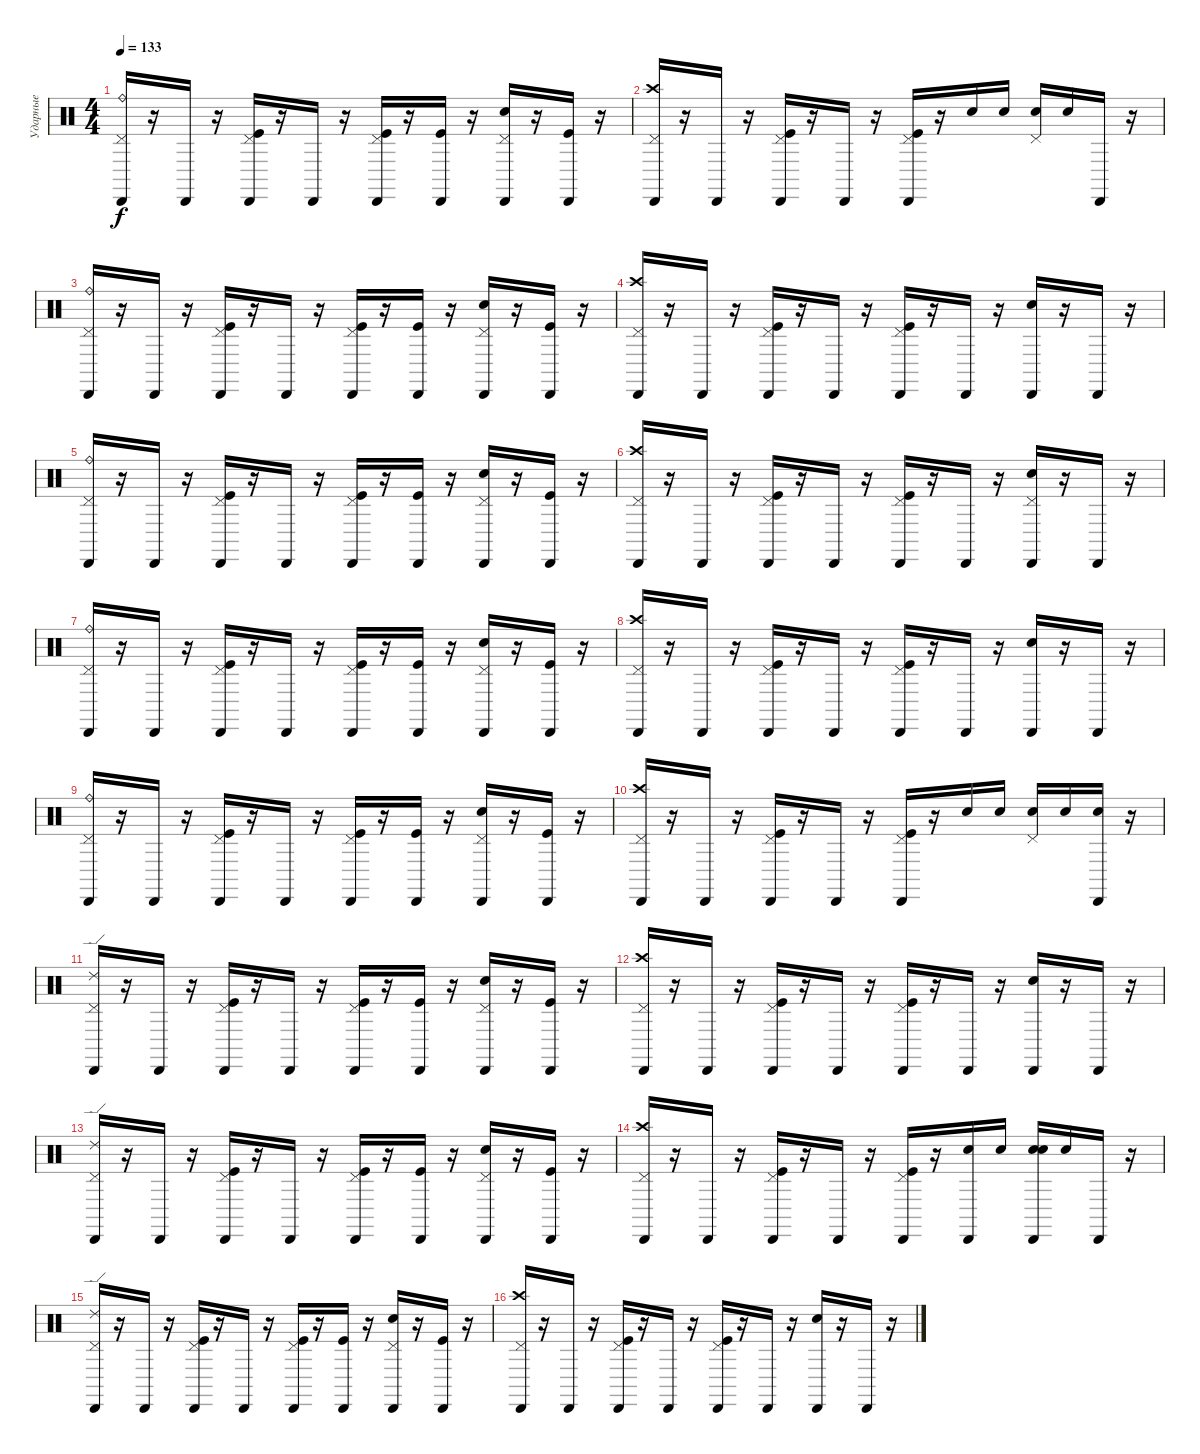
\track ("Ударные" "Ударные") {instrument percussion}
\staff {score}
\articulation defaults
\ts (4 4)
\tempo 133
\clef neutral
\ks c
("Cabasa (hit)" "Pedal Hi-Hat (hit)" "Ride (bell)").16{dy f} r.16 "Cabasa (hit)".16 r.16 ("Cabasa (hit)" "Pedal Hi-Hat (hit)" "Kick (hit)").16 r.16 "Cabasa (hit)".16 r.16 ("Cabasa (hit)" "Pedal Hi-Hat (hit)" "Kick (hit)").16 r.16 ("Cabasa (hit)" "Kick (hit)").16 r.16 ("Cabasa (hit)" "Pedal Hi-Hat (hit)" "Snare (hit) 2").16 r.16 ("Cabasa (hit)" "Kick (hit)").16 r.16 |
("Cabasa (hit)" "Pedal Hi-Hat (hit)" "Crash high (hit)").16 r.16 "Cabasa (hit)".16 r.16 ("Cabasa (hit)" "Pedal Hi-Hat (hit)" "Kick (hit)").16 r.16 "Cabasa (hit)".16 r.16 ("Cabasa (hit)" "Pedal Hi-Hat (hit)" "Kick (hit)").16 r.16 "Snare (hit) 2".16 "Snare (hit) 2".16 ("Snare (hit) 2" "Pedal Hi-Hat (hit)").16 "Snare (hit) 2".16 "Cabasa (hit)".16 r.16 |
("Cabasa (hit)" "Pedal Hi-Hat (hit)" "Ride (bell)").16 r.16 "Cabasa (hit)".16 r.16 ("Cabasa (hit)" "Pedal Hi-Hat (hit)" "Kick (hit)").16 r.16 "Cabasa (hit)".16 r.16 ("Cabasa (hit)" "Pedal Hi-Hat (hit)" "Kick (hit)").16 r.16 ("Cabasa (hit)" "Kick (hit)").16 r.16 ("Cabasa (hit)" "Pedal Hi-Hat (hit)" "Snare (hit) 2").16 r.16 ("Cabasa (hit)" "Kick (hit)").16 r.16 |
("Cabasa (hit)" "Pedal Hi-Hat (hit)" "Crash high (hit)").16 r.16 "Cabasa (hit)".16 r.16 ("Cabasa (hit)" "Pedal Hi-Hat (hit)" "Kick (hit)").16 r.16 "Cabasa (hit)".16 r.16 ("Cabasa (hit)" "Pedal Hi-Hat (hit)" "Kick (hit)").16 r.16 "Cabasa (hit)".16 r.16 ("Cabasa (hit)" "Electric Snare (hit)").16 r.16 "Cabasa (hit)".16 r.16 |
("Cabasa (hit)" "Pedal Hi-Hat (hit)" "Ride (bell)").16 r.16 "Cabasa (hit)".16 r.16 ("Cabasa (hit)" "Pedal Hi-Hat (hit)" "Kick (hit)").16 r.16 "Cabasa (hit)".16 r.16 ("Cabasa (hit)" "Pedal Hi-Hat (hit)" "Kick (hit)").16 r.16 ("Cabasa (hit)" "Kick (hit)").16 r.16 ("Cabasa (hit)" "Pedal Hi-Hat (hit)" "Snare (hit) 2").16 r.16 ("Cabasa (hit)" "Kick (hit)").16 r.16 |
("Cabasa (hit)" "Pedal Hi-Hat (hit)" "Crash high (hit)").16 r.16 "Cabasa (hit)".16 r.16 ("Cabasa (hit)" "Pedal Hi-Hat (hit)" "Kick (hit)").16 r.16 "Cabasa (hit)".16 r.16 ("Cabasa (hit)" "Pedal Hi-Hat (hit)" "Kick (hit)").16 r.16 "Cabasa (hit)".16 r.16 ("Cabasa (hit)" "Pedal Hi-Hat (hit)" "Electric Snare (hit)").16 r.16 "Cabasa (hit)".16 r.16 |
("Cabasa (hit)" "Pedal Hi-Hat (hit)" "Ride (bell)").16 r.16 "Cabasa (hit)".16 r.16 ("Cabasa (hit)" "Pedal Hi-Hat (hit)" "Kick (hit)").16 r.16 "Cabasa (hit)".16 r.16 ("Cabasa (hit)" "Pedal Hi-Hat (hit)" "Kick (hit)").16 r.16 ("Cabasa (hit)" "Kick (hit)").16 r.16 ("Cabasa (hit)" "Pedal Hi-Hat (hit)" "Snare (hit) 2").16 r.16 ("Cabasa (hit)" "Kick (hit)").16 r.16 |
("Cabasa (hit)" "Pedal Hi-Hat (hit)" "Crash high (hit)").16 r.16 "Cabasa (hit)".16 r.16 ("Cabasa (hit)" "Pedal Hi-Hat (hit)" "Kick (hit)").16 r.16 "Cabasa (hit)".16 r.16 ("Cabasa (hit)" "Pedal Hi-Hat (hit)" "Kick (hit)").16 r.16 "Cabasa (hit)".16 r.16 ("Cabasa (hit)" "Electric Snare (hit)").16 r.16 "Cabasa (hit)".16 r.16 |
("Cabasa (hit)" "Pedal Hi-Hat (hit)" "Ride (bell)").16 r.16 "Cabasa (hit)".16 r.16 ("Cabasa (hit)" "Pedal Hi-Hat (hit)" "Kick (hit)").16 r.16 "Cabasa (hit)".16 r.16 ("Cabasa (hit)" "Pedal Hi-Hat (hit)" "Kick (hit)").16 r.16 ("Cabasa (hit)" "Kick (hit)").16 r.16 ("Cabasa (hit)" "Pedal Hi-Hat (hit)" "Snare (hit) 2").16 r.16 ("Cabasa (hit)" "Kick (hit)").16 r.16 |
("Cabasa (hit)" "Pedal Hi-Hat (hit)" "Crash high (hit)").16 r.16 "Cabasa (hit)".16 r.16 ("Cabasa (hit)" "Pedal Hi-Hat (hit)" "Kick (hit)").16 r.16 "Cabasa (hit)".16 r.16 ("Cabasa (hit)" "Pedal Hi-Hat (hit)" "Kick (hit)").16 r.16 "Snare (hit) 2".16 "Snare (hit) 2".16 ("Snare (hit) 2" "Pedal Hi-Hat (hit)").16 "Snare (hit) 2".16 ("Cabasa (hit)" "Electric Snare (hit)").16 r.16 |
("Cabasa (hit)" "Pedal Hi-Hat (hit)" "Ride (edge) 2").16 r.16 "Cabasa (hit)".16 r.16 ("Cabasa (hit)" "Pedal Hi-Hat (hit)" "Kick (hit)").16 r.16 "Cabasa (hit)".16 r.16 ("Cabasa (hit)" "Pedal Hi-Hat (hit)" "Kick (hit)").16 r.16 ("Cabasa (hit)" "Kick (hit)").16 r.16 ("Cabasa (hit)" "Pedal Hi-Hat (hit)" "Snare (hit) 2").16 r.16 ("Cabasa (hit)" "Kick (hit)").16 r.16 |
("Cabasa (hit)" "Pedal Hi-Hat (hit)" "Crash high (hit)").16 r.16 "Cabasa (hit)".16 r.16 ("Cabasa (hit)" "Pedal Hi-Hat (hit)" "Kick (hit)").16 r.16 "Cabasa (hit)".16 r.16 ("Cabasa (hit)" "Pedal Hi-Hat (hit)" "Kick (hit)").16 r.16 "Cabasa (hit)".16 r.16 ("Cabasa (hit)" "Electric Snare (hit)").16 r.16 "Cabasa (hit)".16 r.16 |
("Cabasa (hit)" "Pedal Hi-Hat (hit)" "Ride (edge) 2").16 r.16 "Cabasa (hit)".16 r.16 ("Cabasa (hit)" "Pedal Hi-Hat (hit)" "Kick (hit)").16 r.16 "Cabasa (hit)".16 r.16 ("Cabasa (hit)" "Pedal Hi-Hat (hit)" "Kick (hit)").16 r.16 ("Cabasa (hit)" "Kick (hit)").16 r.16 ("Cabasa (hit)" "Pedal Hi-Hat (hit)" "Snare (hit) 2").16 r.16 ("Cabasa (hit)" "Kick (hit)").16 r.16 |
("Cabasa (hit)" "Pedal Hi-Hat (hit)" "Crash high (hit)").16 r.16 "Cabasa (hit)".16 r.16 ("Cabasa (hit)" "Pedal Hi-Hat (hit)" "Kick (hit)").16 r.16 "Cabasa (hit)".16 r.16 ("Cabasa (hit)" "Pedal Hi-Hat (hit)" "Kick (hit)").16 r.16 ("Cabasa (hit)" "Snare (hit) 2").16 "Snare (hit) 2".16 ("Cabasa (hit)" "Snare (hit) 2" "Electric Snare (hit)").16 "Snare (hit) 2".16 "Cabasa (hit)".16 r.16 |
("Cabasa (hit)" "Pedal Hi-Hat (hit)" "Ride (edge) 2").16 r.16 "Cabasa (hit)".16 r.16 ("Cabasa (hit)" "Pedal Hi-Hat (hit)" "Kick (hit)").16 r.16 "Cabasa (hit)".16 r.16 ("Cabasa (hit)" "Pedal Hi-Hat (hit)" "Kick (hit)").16 r.16 ("Cabasa (hit)" "Kick (hit)").16 r.16 ("Cabasa (hit)" "Pedal Hi-Hat (hit)" "Snare (hit) 2").16 r.16 ("Cabasa (hit)" "Kick (hit)").16 r.16 |
("Cabasa (hit)" "Pedal Hi-Hat (hit)" "Crash high (hit)").16 r.16 "Cabasa (hit)".16 r.16 ("Cabasa (hit)" "Pedal Hi-Hat (hit)" "Kick (hit)").16 r.16 "Cabasa (hit)".16 r.16 ("Cabasa (hit)" "Pedal Hi-Hat (hit)" "Kick (hit)").16 r.16 "Cabasa (hit)".16 r.16 ("Cabasa (hit)" "Electric Snare (hit)").16 r.16 "Cabasa (hit)".16 r.16
